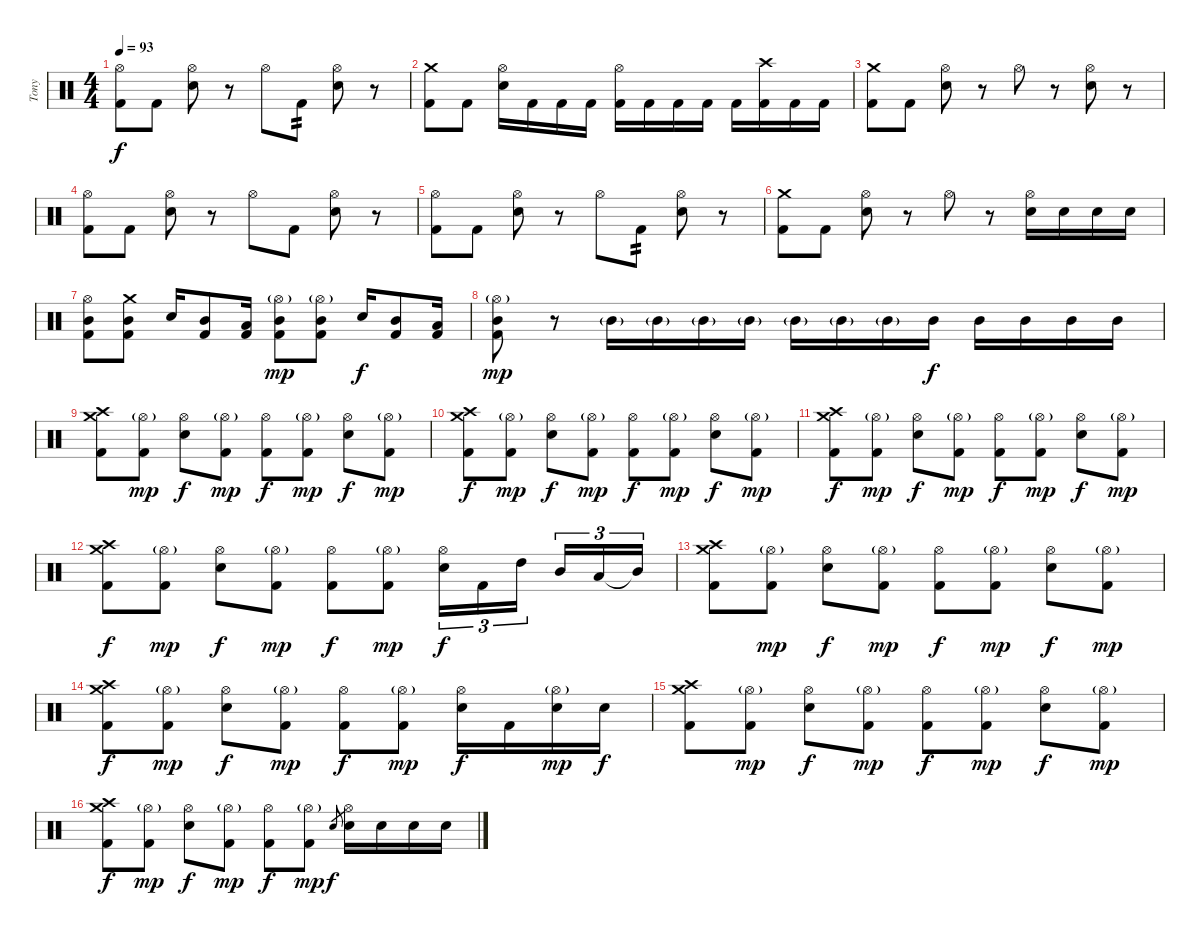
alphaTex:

\track ("Tony" "Tony") {instrument percussion}
\staff {score}
\articulation defaults
\ts (4 4)
\tempo 93
\clef neutral
\ks c
("Hi-Hat (open)" "Kick (hit) 2").8{dy f} "Kick (hit) 2".8 ("Hi-Hat (open)" "Electric Snare (hit)").8 r.8 "Hi-Hat (open)".8 "Kick (hit) 2".8{tp 2} ("Hi-Hat (open)" "Electric Snare (hit)").8 r.8 |
("Crash medium (hit)" "Kick (hit) 2").8 "Kick (hit) 2".8 ("Hi-Hat (open)" "Electric Snare (hit)").16 "Kick (hit) 2".16 "Kick (hit) 2".16 "Kick (hit) 2".16 ("Hi-Hat (open)" "Kick (hit) 2").16 "Kick (hit) 2".16 "Kick (hit) 2".16 "Kick (hit) 2".16 "Kick (hit) 2".16 ("Crash high (hit)" "Kick (hit) 2").16 "Kick (hit) 2".16 "Kick (hit) 2".16 |
("Crash medium (hit)" "Kick (hit) 2").8 "Kick (hit) 2".8 ("Hi-Hat (open)" "Electric Snare (hit)").8 r.8 "Hi-Hat (open)".8 r.8 ("Hi-Hat (open)" "Electric Snare (hit)").8 r.8 |
("Hi-Hat (open)" "Kick (hit) 2").8 "Kick (hit) 2".8 ("Hi-Hat (open)" "Electric Snare (hit)").8 r.8 "Hi-Hat (open)".8 "Kick (hit) 2".8 ("Hi-Hat (open)" "Electric Snare (hit)").8 r.8 |
("Hi-Hat (open)" "Kick (hit) 2").8 "Kick (hit) 2".8 ("Hi-Hat (open)" "Electric Snare (hit)").8 r.8 "Hi-Hat (open)".8 "Kick (hit) 2".8{tp 2} ("Hi-Hat (open)" "Electric Snare (hit)").8 r.8 |
("Crash medium (hit)" "Kick (hit) 2").8 "Kick (hit) 2".8 ("Hi-Hat (open)" "Electric Snare (hit)").8 r.8 "Hi-Hat (open)".8 r.8 ("Hi-Hat (open)" "Electric Snare (hit)").16 "Electric Snare (hit)".16 "Electric Snare (hit)".16 "Electric Snare (hit)".16 |
("Hi-Hat (open)" "Mid Tom (hit)" "Kick (hit) 2").8 ("Crash medium (hit)" "Mid Tom (hit)" "Kick (hit) 2").8 "Electric Snare (hit)".16 ("Mid Tom (hit)" "Kick (hit) 2").8 ("Low Tom (hit)" "Kick (hit) 2").16 ("Hi-Hat (open)"{g} "Mid Tom (hit)" "Kick (hit) 2").8{dy mp} ("Hi-Hat (open)"{g} "Mid Tom (hit)" "Kick (hit) 2").8 "Electric Snare (hit)".16{dy f} ("Mid Tom (hit)" "Kick (hit) 2").8 ("Low Tom (hit)" "Kick (hit) 2").16 |
("Hi-Hat (open)"{g} "Mid Tom (hit)" "Kick (hit) 2").8{dy mp} r.8 "Mid Tom (hit)"{g}.16 "Mid Tom (hit)"{g}.16 "Mid Tom (hit)"{g}.16 "Mid Tom (hit)"{g}.16 "Mid Tom (hit)"{g}.16 "Mid Tom (hit)"{g}.16 "Mid Tom (hit)"{g}.16 "Mid Tom (hit)".16{dy f} "Mid Tom (hit)".16 "Mid Tom (hit)".16 "Mid Tom (hit)".16 "Mid Tom (hit)".16 |
("Crash high (hit)" "Crash medium (hit)" "Kick (hit) 2").8 ("Hi-Hat (open)"{g} "Kick (hit) 2").8{dy mp} ("Hi-Hat (open)" "Electric Snare (hit)").8{dy f} ("Hi-Hat (open)"{g} "Kick (hit) 2").8{dy mp} ("Hi-Hat (open)" "Kick (hit) 2").8{dy f} ("Hi-Hat (open)"{g} "Kick (hit) 2").8{dy mp} ("Hi-Hat (open)" "Electric Snare (hit)").8{dy f} ("Hi-Hat (open)"{g} "Kick (hit) 2").8{dy mp} |
("Crash high (hit)" "Crash medium (hit)" "Kick (hit) 2").8{dy f} ("Hi-Hat (open)"{g} "Kick (hit) 2").8{dy mp} ("Hi-Hat (open)" "Electric Snare (hit)").8{dy f} ("Hi-Hat (open)"{g} "Kick (hit) 2").8{dy mp} ("Hi-Hat (open)" "Kick (hit) 2").8{dy f} ("Hi-Hat (open)"{g} "Kick (hit) 2").8{dy mp} ("Hi-Hat (open)" "Electric Snare (hit)").8{dy f} ("Hi-Hat (open)"{g} "Kick (hit) 2").8{dy mp} |
("Crash high (hit)" "Crash medium (hit)" "Kick (hit) 2").8{dy f} ("Hi-Hat (open)"{g} "Kick (hit) 2").8{dy mp} ("Hi-Hat (open)" "Electric Snare (hit)").8{dy f} ("Hi-Hat (open)"{g} "Kick (hit) 2").8{dy mp} ("Hi-Hat (open)" "Kick (hit) 2").8{dy f} ("Hi-Hat (open)"{g} "Kick (hit) 2").8{dy mp} ("Hi-Hat (open)" "Electric Snare (hit)").8{dy f} ("Hi-Hat (open)"{g} "Kick (hit) 2").8{dy mp} |
("Crash high (hit)" "Crash medium (hit)" "Kick (hit) 2").8{dy f} ("Hi-Hat (open)"{g} "Kick (hit) 2").8{dy mp} ("Hi-Hat (open)" "Electric Snare (hit)").8{dy f} ("Hi-Hat (open)"{g} "Kick (hit) 2").8{dy mp} ("Hi-Hat (open)" "Kick (hit) 2").8{dy f} ("Hi-Hat (open)"{g} "Kick (hit) 2").8{dy mp} ("Hi-Hat (open)" "Electric Snare (hit)").16{tu (3 2) dy f} "Kick (hit) 2".16{tu (3 2)} "High Tom (hit)".16{tu (3 2) beam splitsecondary} "Mid Tom (hit)".16{tu (3 2)} "Low Tom (hit)".16{tu (3 2)} "Mid Tom (hit)"{t}.16{tu (3 2)} |
("Crash high (hit)" "Crash medium (hit)" "Kick (hit) 2").8 ("Hi-Hat (open)"{g} "Kick (hit) 2").8{dy mp} ("Hi-Hat (open)" "Electric Snare (hit)").8{dy f} ("Hi-Hat (open)"{g} "Kick (hit) 2").8{dy mp} ("Hi-Hat (open)" "Kick (hit) 2").8{dy f} ("Hi-Hat (open)"{g} "Kick (hit) 2").8{dy mp} ("Hi-Hat (open)" "Electric Snare (hit)").8{dy f} ("Hi-Hat (open)"{g} "Kick (hit) 2").8{dy mp} |
("Crash high (hit)" "Crash medium (hit)" "Kick (hit) 2").8{dy f} ("Hi-Hat (open)"{g} "Kick (hit) 2").8{dy mp} ("Hi-Hat (open)" "Electric Snare (hit)").8{dy f} ("Hi-Hat (open)"{g} "Kick (hit) 2").8{dy mp} ("Hi-Hat (open)" "Kick (hit) 2").8{dy f} ("Hi-Hat (open)"{g} "Kick (hit) 2").8{dy mp} ("Hi-Hat (open)" "Electric Snare (hit)").16{dy f} "Kick (hit) 2".16 ("Hi-Hat (open)"{g} "Electric Snare (hit)").16{dy mp} "Electric Snare (hit)".16{dy f} |
("Crash high (hit)" "Crash medium (hit)" "Kick (hit) 2").8 ("Hi-Hat (open)"{g} "Kick (hit) 2").8{dy mp} ("Hi-Hat (open)" "Electric Snare (hit)").8{dy f} ("Hi-Hat (open)"{g} "Kick (hit) 2").8{dy mp} ("Hi-Hat (open)" "Kick (hit) 2").8{dy f} ("Hi-Hat (open)"{g} "Kick (hit) 2").8{dy mp} ("Hi-Hat (open)" "Electric Snare (hit)").8{dy f} ("Hi-Hat (open)"{g} "Kick (hit) 2").8{dy mp} |
("Crash high (hit)" "Crash medium (hit)" "Kick (hit) 2").8{dy f} ("Hi-Hat (open)"{g} "Kick (hit) 2").8{dy mp} ("Hi-Hat (open)" "Electric Snare (hit)").8{dy f} ("Hi-Hat (open)"{g} "Kick (hit) 2").8{dy mp} ("Hi-Hat (open)" "Kick (hit) 2").8{dy f} ("Hi-Hat (open)"{g} "Kick (hit) 2").8{dy mp} "Electric Snare (hit)".8{gr dy f} ("Hi-Hat (open)" "Electric Snare (hit)").16 "Electric Snare (hit)".16 "Electric Snare (hit)".16 "Electric Snare (hit)".16
